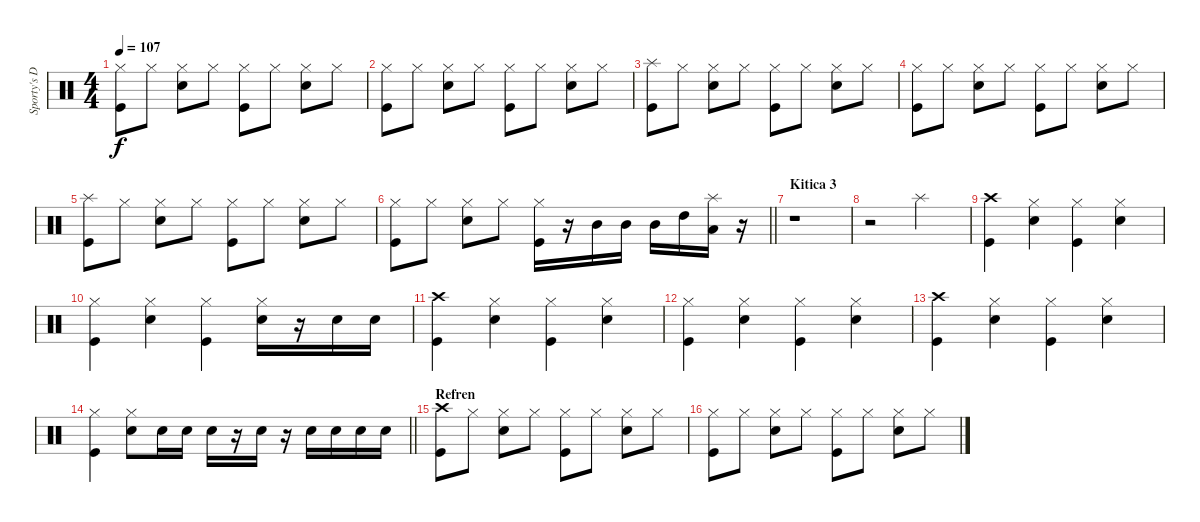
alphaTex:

\track ("Sporty's Drums" "Sporty's D") {instrument percussion}
\staff {score}
\articulation defaults
\ts (4 4)
\tempo 107
\clef neutral
\ks c
("Hi-Hat (closed)" "Kick (hit)").8{dy f} "Hi-Hat (closed)".8 ("Hi-Hat (closed)" "Electric Snare (hit)").8 "Hi-Hat (closed)".8 ("Hi-Hat (closed)" "Kick (hit)").8 "Hi-Hat (closed)".8 ("Hi-Hat (closed)" "Electric Snare (hit)").8 "Hi-Hat (closed)".8 |
("Hi-Hat (closed)" "Kick (hit)").8 "Hi-Hat (closed)".8 ("Hi-Hat (closed)" "Electric Snare (hit)").8 "Hi-Hat (closed)".8 ("Hi-Hat (closed)" "Kick (hit)").8 "Hi-Hat (closed)".8 ("Hi-Hat (closed)" "Electric Snare (hit)").8 "Hi-Hat (closed)".8 |
("Splash (hit)" "Kick (hit)").8 "Hi-Hat (closed)".8 ("Hi-Hat (closed)" "Electric Snare (hit)").8 "Hi-Hat (closed)".8 ("Hi-Hat (closed)" "Kick (hit)").8 "Hi-Hat (closed)".8 ("Hi-Hat (closed)" "Electric Snare (hit)").8 "Hi-Hat (closed)".8 |
("Hi-Hat (closed)" "Kick (hit)").8 "Hi-Hat (closed)".8 ("Hi-Hat (closed)" "Electric Snare (hit)").8 "Hi-Hat (closed)".8 ("Hi-Hat (closed)" "Kick (hit)").8 "Hi-Hat (closed)".8 ("Hi-Hat (closed)" "Electric Snare (hit)").8 "Hi-Hat (closed)".8 |
("Splash (hit)" "Kick (hit)").8 "Hi-Hat (closed)".8 ("Hi-Hat (closed)" "Electric Snare (hit)").8 "Hi-Hat (closed)".8 ("Hi-Hat (closed)" "Kick (hit)").8 "Hi-Hat (closed)".8 ("Hi-Hat (closed)" "Electric Snare (hit)").8 "Hi-Hat (closed)".8 |
\barLineRight lightlight
("Hi-Hat (closed)" "Kick (hit)").8 "Hi-Hat (closed)".8 ("Hi-Hat (closed)" "Electric Snare (hit)").8 "Hi-Hat (closed)".8 ("Hi-Hat (closed)" "Kick (hit)").16 r.16 "Mid Tom (hit)".16 "Mid Tom (hit)".16 "Mid Tom (hit)".16 "High Tom (hit)".16 ("Splash (hit)" "Low Floor Tom (hit)").16 r.16 |
\section ("" "Kitica 3")
r.1 |
r.2 "Splash (hit)".2 |
("Crash high (hit)" "Kick (hit)").4 ("Hi-Hat (closed)" "Electric Snare (hit)").4 ("Hi-Hat (closed)" "Kick (hit)").4 ("Hi-Hat (closed)" "Electric Snare (hit)").4 |
("Hi-Hat (closed)" "Kick (hit)").4 ("Hi-Hat (closed)" "Electric Snare (hit)").4 ("Hi-Hat (closed)" "Kick (hit)").4 ("Hi-Hat (closed)" "Electric Snare (hit)").16 r.16 "Electric Snare (hit)".16 "Electric Snare (hit)".16 |
("Crash high (hit)" "Kick (hit)").4 ("Hi-Hat (closed)" "Electric Snare (hit)").4 ("Hi-Hat (closed)" "Kick (hit)").4 ("Hi-Hat (closed)" "Electric Snare (hit)").4 |
("Hi-Hat (closed)" "Kick (hit)").4 ("Hi-Hat (closed)" "Electric Snare (hit)").4 ("Hi-Hat (closed)" "Kick (hit)").4 ("Hi-Hat (closed)" "Electric Snare (hit)").4 |
("Crash high (hit)" "Kick (hit)").4 ("Hi-Hat (closed)" "Electric Snare (hit)").4 ("Hi-Hat (closed)" "Kick (hit)").4 ("Hi-Hat (closed)" "Electric Snare (hit)").4 |
\barLineRight lightlight
("Hi-Hat (closed)" "Kick (hit)").4 ("Hi-Hat (closed)" "Electric Snare (hit)").8 "Electric Snare (hit)".16 "Electric Snare (hit)".16 "Electric Snare (hit)".16 r.16 "Electric Snare (hit)".16 r.16 "Electric Snare (hit)".16 "Electric Snare (hit)".16 "Electric Snare (hit)".16 "Electric Snare (hit)".16 |
\section ("" "Refren")
("Crash high (hit)" "Kick (hit)").8 "Hi-Hat (closed)".8 ("Hi-Hat (closed)" "Electric Snare (hit)").8 "Hi-Hat (closed)".8 ("Hi-Hat (closed)" "Kick (hit)").8 "Hi-Hat (closed)".8 ("Hi-Hat (closed)" "Electric Snare (hit)").8 "Hi-Hat (closed)".8 |
("Hi-Hat (closed)" "Kick (hit)").8 "Hi-Hat (closed)".8 ("Hi-Hat (closed)" "Electric Snare (hit)").8 "Hi-Hat (closed)".8 ("Hi-Hat (closed)" "Kick (hit)").8 "Hi-Hat (closed)".8 ("Hi-Hat (closed)" "Electric Snare (hit)").8 "Hi-Hat (closed)".8
